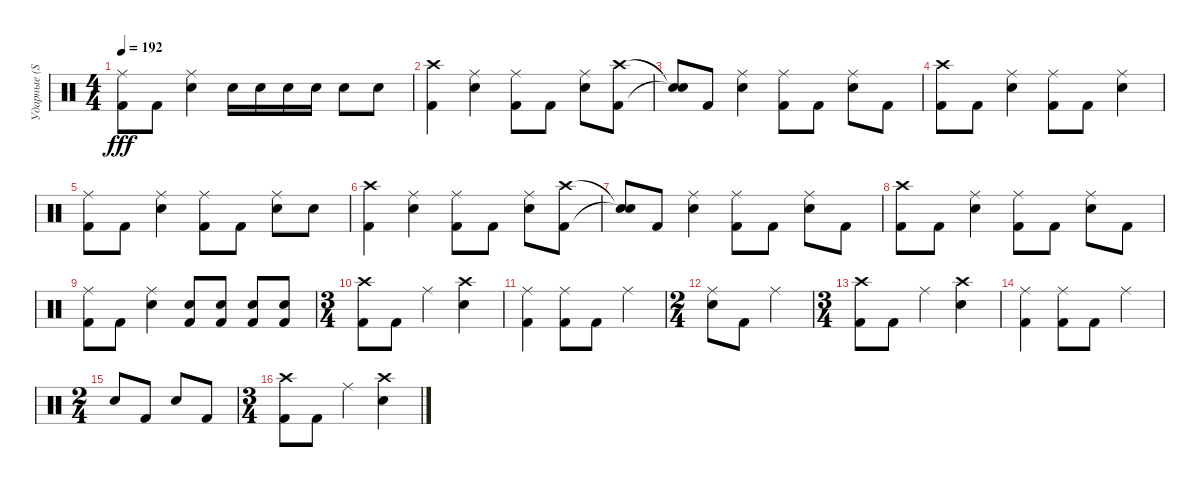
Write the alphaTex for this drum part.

\track ("Ударные (Steve Jocz)" "Ударные (S") {instrument percussion}
\staff {score}
\articulation defaults
\ts (4 4)
\tempo 192
\clef neutral
\ks c
("Ride (middle)" "Kick (hit) 2").8{dy fff} "Kick (hit) 2".8 ("Ride (middle)" "Electric Snare (hit)").4 "Electric Snare (hit)".16 "Electric Snare (hit)".16 "Electric Snare (hit)".16 "Electric Snare (hit)".16 "Electric Snare (hit)".8 "Electric Snare (hit)".8 |
("Crash high (hit)" "Kick (hit) 2").4 ("Ride (middle)" "Electric Snare (hit)").4 ("Ride (middle)" "Kick (hit) 2").8 "Kick (hit) 2".8 ("Ride (middle)" "Electric Snare (hit)").8 ("Crash high (hit)" "Kick (hit) 2").8 |
("Snare (hit)"{t} "Snare (hit)"{t}).8 "Kick (hit) 2".8 ("Ride (middle)" "Electric Snare (hit)").4 ("Ride (middle)" "Kick (hit) 2").8 "Kick (hit) 2".8 ("Ride (middle)" "Electric Snare (hit)").8 "Kick (hit) 2".8 |
("Crash high (hit)" "Kick (hit) 2").8 "Kick (hit) 2".8 ("Ride (middle)" "Electric Snare (hit)").4 ("Ride (middle)" "Kick (hit) 2").8 "Kick (hit) 2".8 ("Ride (middle)" "Electric Snare (hit)").4 |
("Ride (middle)" "Kick (hit) 2").8 "Kick (hit) 2".8 ("Ride (middle)" "Electric Snare (hit)").4 ("Ride (middle)" "Kick (hit) 2").8 "Kick (hit) 2".8 ("Ride (middle)" "Electric Snare (hit)").8 "Electric Snare (hit)".8 |
("Crash high (hit)" "Kick (hit) 2").4 ("Ride (middle)" "Electric Snare (hit)").4 ("Ride (middle)" "Kick (hit) 2").8 "Kick (hit) 2".8 ("Ride (middle)" "Electric Snare (hit)").8 ("Crash high (hit)" "Kick (hit) 2").8 |
("Snare (hit)"{t} "Snare (hit)"{t}).8 "Kick (hit) 2".8 ("Ride (middle)" "Electric Snare (hit)").4 ("Ride (middle)" "Kick (hit) 2").8 "Kick (hit) 2".8 ("Ride (middle)" "Electric Snare (hit)").8 "Kick (hit) 2".8 |
("Crash high (hit)" "Kick (hit) 2").8 "Kick (hit) 2".8 ("Ride (middle)" "Electric Snare (hit)").4 ("Ride (middle)" "Kick (hit) 2").8 "Kick (hit) 2".8 ("Ride (middle)" "Electric Snare (hit)").8 "Kick (hit) 2".8 |
("Ride (middle)" "Kick (hit) 2").8 "Kick (hit) 2".8 ("Ride (middle)" "Electric Snare (hit)").4 ("Electric Snare (hit)" "Kick (hit) 2").8 ("Electric Snare (hit)" "Kick (hit) 2").8 ("Electric Snare (hit)" "Kick (hit) 2").8 ("Electric Snare (hit)" "Kick (hit) 2").8 |
\ts (3 4)
("Crash high (hit)" "Kick (hit) 2").8 "Kick (hit) 2".8 "Ride (middle)".4 ("Crash high (hit)" "Electric Snare (hit)").4 |
("Ride (middle)" "Kick (hit) 2").4 ("Ride (middle)" "Kick (hit) 2").8 "Kick (hit) 2".8 "Ride (middle)".4 |
\ts (2 4)
("Ride (middle)" "Electric Snare (hit)").8 "Kick (hit) 2".8 "Ride (middle)".4 |
\ts (3 4)
("Crash high (hit)" "Kick (hit) 2").8 "Kick (hit) 2".8 "Ride (middle)".4 ("Crash high (hit)" "Electric Snare (hit)").4 |
("Ride (middle)" "Kick (hit) 2").4 ("Ride (middle)" "Kick (hit) 2").8 "Kick (hit) 2".8 "Ride (middle)".4 |
\ts (2 4)
"Electric Snare (hit)".8 "Kick (hit) 2".8 "Electric Snare (hit)".8 "Kick (hit) 2".8 |
\ts (3 4)
("Crash high (hit)" "Kick (hit) 2").8 "Kick (hit) 2".8 "Ride (middle)".4 ("Crash high (hit)" "Electric Snare (hit)").4
